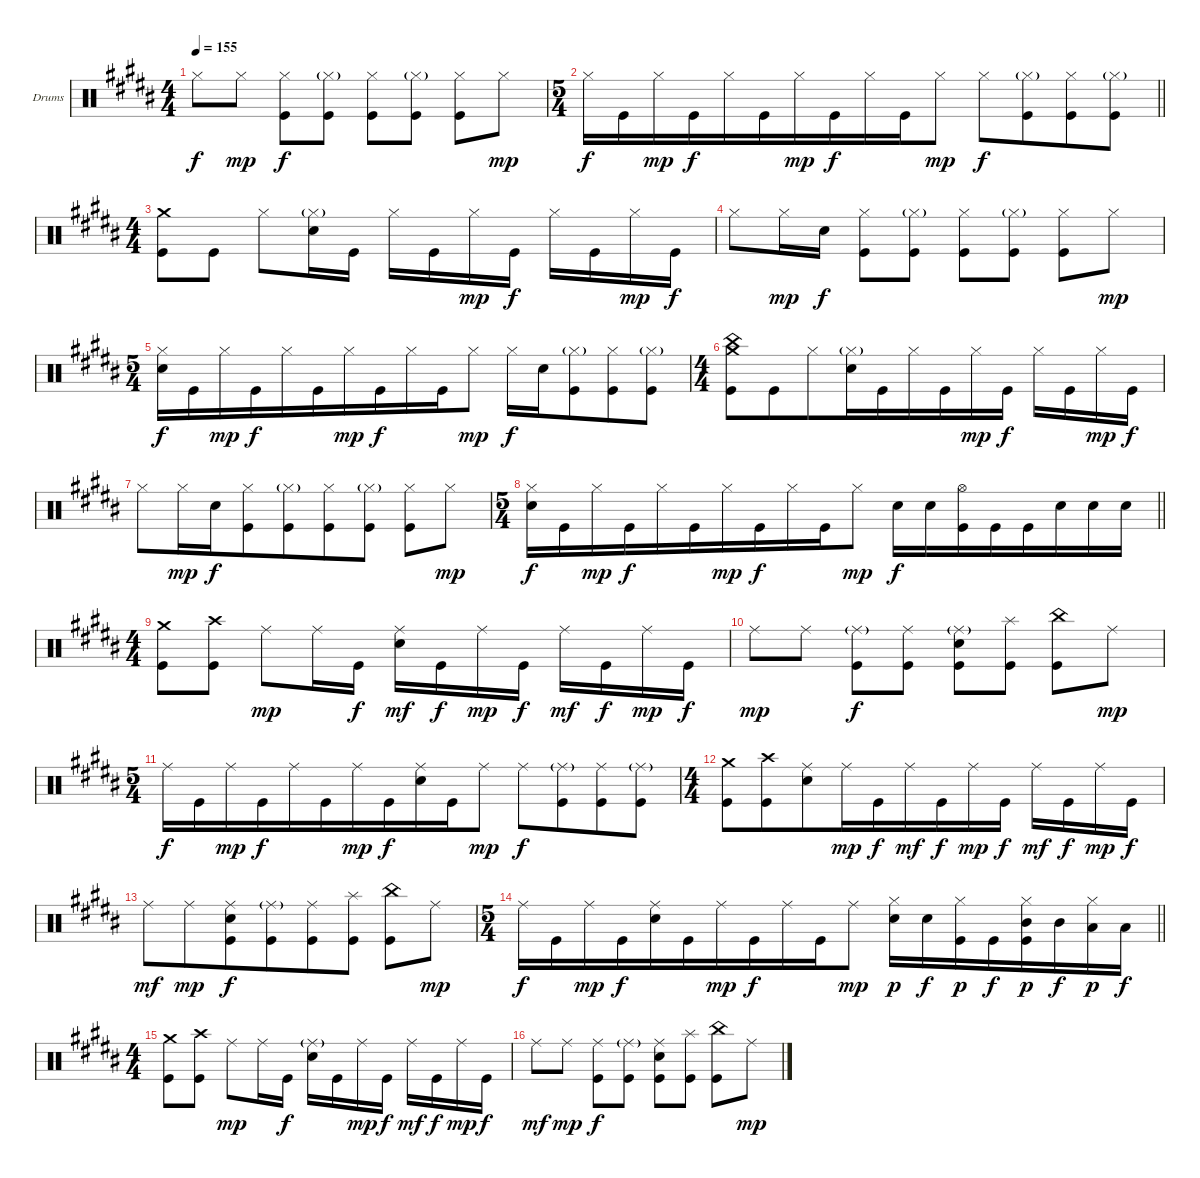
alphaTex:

\bracketExtendMode groupsimilarinstruments
\firstSystemTrackNameOrientation horizontal
\otherSystemsTrackNameOrientation horizontal
\track ("Navene Koperweis" "Drums") {instrument percussion}
\staff {score}
\articulation defaults
\ts (4 4)
\tempo 155
\clef neutral
\ks b "Hi-Hat (closed)".8{dy f} "Hi-Hat (closed)".8{dy mp}
("Hi-Hat (closed)" "Kick (hit)").8{dy f} ("Hi-Hat (closed)"{g} "Kick (hit)").8 ("Hi-Hat (closed)" "Kick (hit)").8 ("Hi-Hat (closed)"{g} "Kick (hit)").8 ("Hi-Hat (closed)" "Kick (hit)").8 "Hi-Hat (closed)".8{dy mp} |
\ts (5 4)
\beaming (8 6 4)
\barLineRight lightlight "Hi-Hat (closed)".16{dy f} "Kick (hit)".16 "Hi-Hat (closed)".16{dy mp} "Kick (hit)".16{dy f} "Hi-Hat (closed)".16 "Kick (hit)".16 "Hi-Hat (closed)".16{dy mp} "Kick (hit)".16{dy f} "Hi-Hat (closed)".16 "Kick (hit)".16 "Hi-Hat (closed)".8{dy mp} "Hi-Hat (closed)".8{dy f}
("Hi-Hat (closed)"{g} "Kick (hit)").8 ("Hi-Hat (closed)" "Kick (hit)").8 ("Hi-Hat (closed)"{g} "Kick (hit)").8 |
\ts (4 4)
\beaming (8 2 2 2 2)
("Crash medium (hit)" "Kick (hit)").8 "Kick (hit)".8 "Hi-Hat (closed)".8 ("Hi-Hat (closed)"{g} "Snare (hit) 2").16 "Kick (hit)".16 "Hi-Hat (closed)".16 "Kick (hit)".16 "Hi-Hat (closed)".16{dy mp} "Kick (hit)".16{dy f} "Hi-Hat (closed)".16 "Kick (hit)".16 "Hi-Hat (closed)".16{dy mp} "Kick (hit)".16{dy f} |
"Hi-Hat (closed)".8 "Hi-Hat (closed)".16{dy mp} "Snare (hit) 2".16{dy f} ("Hi-Hat (closed)" "Kick (hit)").8 ("Hi-Hat (closed)"{g} "Kick (hit)").8 ("Hi-Hat (closed)" "Kick (hit)").8 ("Hi-Hat (closed)"{g} "Kick (hit)").8 ("Hi-Hat (closed)" "Kick (hit)").8 "Hi-Hat (closed)".8{dy mp} |
\ts (5 4)
\beaming (8 6 4)
("Hi-Hat (closed)" "Snare (hit) 2").16{dy f} "Kick (hit)".16 "Hi-Hat (closed)".16{dy mp} "Kick (hit)".16{dy f} "Hi-Hat (closed)".16 "Kick (hit)".16 "Hi-Hat (closed)".16{dy mp} "Kick (hit)".16{dy f} "Hi-Hat (closed)".16 "Kick (hit)".16 "Hi-Hat (closed)".8{dy mp} "Hi-Hat (closed)".16{dy f} "Snare (hit) 2".16 ("Hi-Hat (closed)"{g} "Kick (hit)").8 ("Hi-Hat (closed)" "Kick (hit)").8 ("Hi-Hat (closed)"{g} "Kick (hit)").8 |
\ts (4 4)
\beaming (8 6 4)
("Crash medium (hit)" "Kick (hit)" "China (hit)").8 "Kick (hit)".8 "Hi-Hat (closed)".8 ("Hi-Hat (closed)"{g} "Snare (hit) 2").16 "Kick (hit)".16 "Hi-Hat (closed)".16 "Kick (hit)".16 "Hi-Hat (closed)".16{dy mp} "Kick (hit)".16{dy f} "Hi-Hat (closed)".16 "Kick (hit)".16 "Hi-Hat (closed)".16{dy mp} "Kick (hit)".16{dy f} |
"Hi-Hat (closed)".8 "Hi-Hat (closed)".16{dy mp} "Snare (hit) 2".16{dy f} ("Hi-Hat (closed)" "Kick (hit)").8 ("Hi-Hat (closed)"{g} "Kick (hit)").8 ("Hi-Hat (closed)" "Kick (hit)").8 ("Hi-Hat (closed)"{g} "Kick (hit)").8 ("Hi-Hat (closed)" "Kick (hit)").8 "Hi-Hat (closed)".8{dy mp} |
\ts (5 4)
\beaming (8 6 4)
\barLineRight lightlight
("Hi-Hat (closed)" "Snare (hit) 2").16{dy f} "Kick (hit)".16 "Hi-Hat (closed)".16{dy mp} "Kick (hit)".16{dy f} "Hi-Hat (closed)".16 "Kick (hit)".16 "Hi-Hat (closed)".16{dy mp} "Kick (hit)".16{dy f} "Hi-Hat (closed)".16 "Kick (hit)".16 "Hi-Hat (closed)".8{dy mp} "Snare (hit) 2".16{dy f} "Snare (hit) 2".16 ("Hi-Hat (open)" "Kick (hit)").16 "Kick (hit)".16 "Kick (hit)".16 "Snare (hit) 2".16 "Snare (hit) 2".16 "Snare (hit) 2".16 |
\ts (4 4)
\beaming (8 2 2 2 2)
("Crash medium (hit)" "Kick (hit)").8 ("Crash high (hit)" "Kick (hit)").8 "Ride (middle)".8{dy mp} "Ride (middle)".16 "Kick (hit)".16{dy f} ("Ride (middle)" "Snare (hit) 2").16{dy mf} "Kick (hit)".16{dy f} "Ride (middle)".16{dy mp} "Kick (hit)".16{dy f} "Ride (middle)".16{dy mf} "Kick (hit)".16{dy f} "Ride (middle)".16{dy mp} "Kick (hit)".16{dy f} |
"Ride (middle)".8{dy mp} "Ride (middle)".8 ("Ride (middle)"{g} "Kick (hit)").8{dy f} ("Ride (middle)" "Kick (hit)").8 ("Ride (middle)"{g} "Snare (hit) 2" "Kick (hit)").8 ("Splash (hit)" "Kick (hit)").8 ("China (hit)" "Kick (hit)").8 "Ride (middle)".8{dy mp} |
\ts (5 4)
\beaming (8 6 4)
"Ride (middle)".16{dy f} "Kick (hit)".16 "Ride (middle)".16{dy mp} "Kick (hit)".16{dy f} "Ride (middle)".16 "Kick (hit)".16 "Ride (middle)".16{dy mp} "Kick (hit)".16{dy f} ("Ride (middle)" "Snare (hit) 2").16 "Kick (hit)".16 "Ride (middle)".8{dy mp} "Ride (middle)".8{dy f} ("Ride (middle)"{g} "Kick (hit)").8 ("Ride (middle)" "Kick (hit)").8 ("Ride (middle)"{g} "Kick (hit)").8 |
\ts (4 4)
\beaming (8 6 4)
("Crash medium (hit)" "Kick (hit)").8 ("Crash high (hit)" "Kick (hit)").8 ("Ride (middle)" "Snare (hit) 2").8 "Ride (middle)".16{dy mp} "Kick (hit)".16{dy f} "Ride (middle)".16{dy mf} "Kick (hit)".16{dy f} "Ride (middle)".16{dy mp} "Kick (hit)".16{dy f} "Ride (middle)".16{dy mf} "Kick (hit)".16{dy f} "Ride (middle)".16{dy mp} "Kick (hit)".16{dy f} |
"Ride (middle)".8{dy mf} "Ride (middle)".8{dy mp} ("Ride (middle)" "Snare (hit) 2" "Kick (hit)").8{dy f} ("Ride (middle)"{g} "Kick (hit)").8 ("Ride (middle)" "Kick (hit)").8 ("Splash (hit)" "Kick (hit)").8 ("China (hit)" "Kick (hit)").8 "Ride (middle)".8{dy mp} |
\ts (5 4)
\beaming (8 6 4)
\barLineRight lightlight "Ride (middle)".16{dy f} "Kick (hit)".16 "Ride (middle)".16{dy mp} "Kick (hit)".16{dy f}
("Ride (middle)" "Snare (hit) 2").16 "Kick (hit)".16 "Ride (middle)".16{dy mp} "Kick (hit)".16{dy f} "Ride (middle)".16 "Kick (hit)".16 "Ride (middle)".8{dy mp} ("Hi-Hat (closed)" "Snare (hit) 2").16{dy p} "Snare (hit) 2".16{dy f} ("Hi-Hat (closed)" "Kick (hit)").16{dy p} "Kick (hit)".16{dy f} ("Hi-Hat (closed)" "Mid Tom (hit)" "Kick (hit)").16{dy p} "Mid Tom (hit)".16{dy f} ("Hi-Hat (closed)" "Low Tom (hit)").16{dy p} "Low Tom (hit)".16{dy f} |
\ts (4 4)
\beaming (8 2 2 2 2)
("Crash medium (hit)" "Kick (hit)").8 ("Crash high (hit)" "Kick (hit)").8 "Ride (middle)".8{dy mp} "Ride (middle)".16 "Kick (hit)".16{dy f} ("Ride (middle)"{g} "Snare (hit) 2").16 "Kick (hit)".16 "Ride (middle)".16{dy mp} "Kick (hit)".16{dy f} "Ride (middle)".16{dy mf} "Kick (hit)".16{dy f} "Ride (middle)".16{dy mp} "Kick (hit)".16{dy f} |
"Ride (middle)".8{dy mf} "Ride (middle)".8{dy mp} ("Ride (middle)" "Kick (hit)").8{dy f} ("Ride (middle)"{g} "Kick (hit)").8 ("Ride (middle)" "Snare (hit) 2" "Kick (hit)").8 ("Splash (hit)" "Kick (hit)").8 ("China (hit)" "Kick (hit)").8 "Ride (middle)".8{dy mp}
